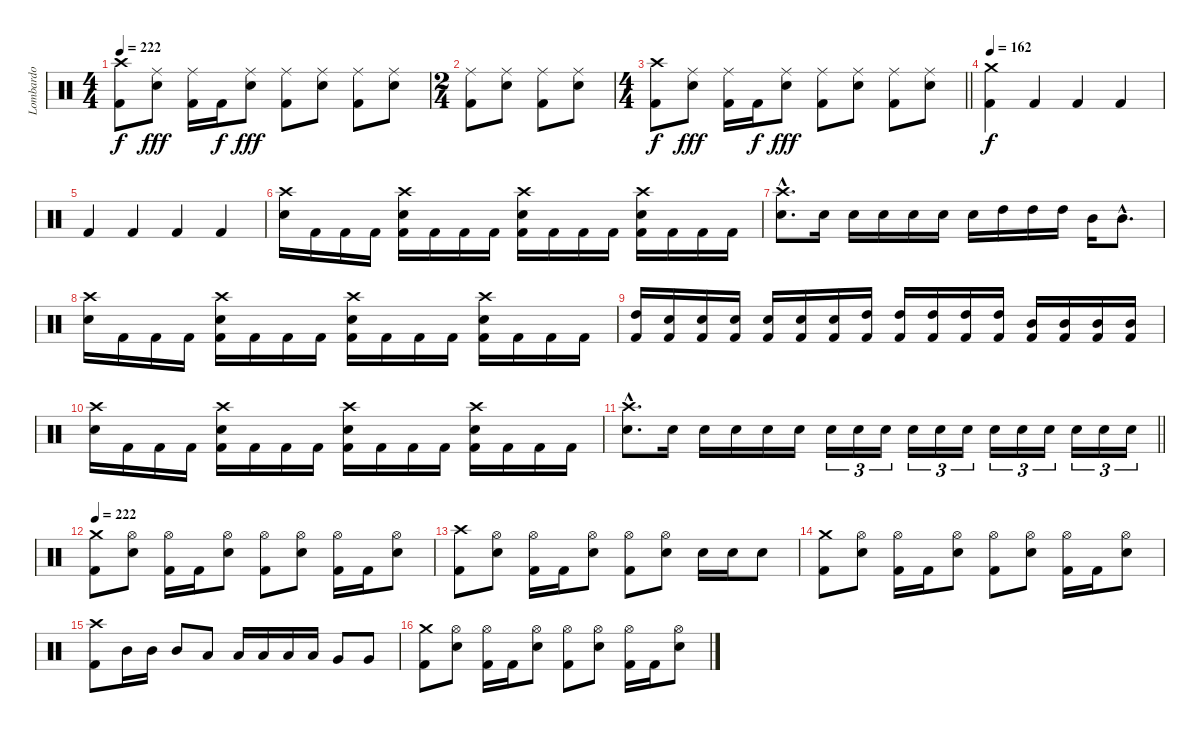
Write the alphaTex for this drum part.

\track ("Lombardo" "Lombardo") {instrument percussion}
\staff {score}
\articulation defaults
\ts (4 4)
\tempo 222
\clef neutral
\ks c
("Crash high (hit)" "Kick (hit) 2").8{dy f} ("Ride (middle)" "Snare (hit) 2").8{dy fff} ("Ride (middle)" "Kick (hit) 2").16 "Kick (hit) 2".16{dy f} ("Ride (middle)" "Snare (hit) 2").8{dy fff} ("Ride (middle)" "Kick (hit) 2").8 ("Ride (middle)" "Snare (hit) 2").8 ("Ride (middle)" "Kick (hit) 2").8 ("Ride (middle)" "Snare (hit) 2").8 |
\ts (2 4)
("Ride (middle)" "Kick (hit) 2").8 ("Ride (middle)" "Snare (hit) 2").8 ("Ride (middle)" "Kick (hit) 2").8 ("Ride (middle)" "Snare (hit) 2").8 |
\ts (4 4)
\barLineRight lightlight
("Crash high (hit)" "Kick (hit) 2").8{dy f} ("Ride (middle)" "Snare (hit) 2").8{dy fff} ("Ride (middle)" "Kick (hit) 2").16 "Kick (hit) 2".16{dy f} ("Ride (middle)" "Snare (hit) 2").8{dy fff} ("Ride (middle)" "Kick (hit) 2").8 ("Ride (middle)" "Snare (hit) 2").8 ("Ride (middle)" "Kick (hit) 2").8 ("Ride (middle)" "Snare (hit) 2").8 |
\tempo 162
("Crash medium (hit)" "Kick (hit) 2").4{dy f} "Kick (hit) 2".4 "Kick (hit) 2".4 "Kick (hit) 2".4 |
"Kick (hit) 2".4 "Kick (hit) 2".4 "Kick (hit) 2".4 "Kick (hit) 2".4 |
("Crash high (hit)" "Snare (hit) 2").16 "Kick (hit) 2".16 "Kick (hit) 2".16 "Kick (hit) 2".16 ("Crash high (hit)" "Snare (hit) 2" "Kick (hit) 2").16 "Kick (hit) 2".16 "Kick (hit) 2".16 "Kick (hit) 2".16 ("Crash high (hit)" "Snare (hit) 2" "Kick (hit) 2").16 "Kick (hit) 2".16 "Kick (hit) 2".16 "Kick (hit) 2".16 ("Crash high (hit)" "Snare (hit) 2" "Kick (hit) 2").16 "Kick (hit) 2".16 "Kick (hit) 2".16 "Kick (hit) 2".16 |
("Crash high (hit)"{hac} "Snare (hit) 2"{hac}).8{d} "Snare (hit) 2".16 "Snare (hit) 2".16 "Snare (hit) 2".16 "Snare (hit) 2".16 "Snare (hit) 2".16 "Snare (hit) 2".16 "High Tom (hit)".16 "High Tom (hit)".16 "High Tom (hit)".16 "Mid Tom (hit)".16 "Mid Tom (hit)"{hac}.8{d} |
("Crash high (hit)" "Snare (hit) 2").16 "Kick (hit) 2".16 "Kick (hit) 2".16 "Kick (hit) 2".16 ("Crash high (hit)" "Snare (hit) 2" "Kick (hit) 2").16 "Kick (hit) 2".16 "Kick (hit) 2".16 "Kick (hit) 2".16 ("Crash high (hit)" "Snare (hit) 2" "Kick (hit) 2").16 "Kick (hit) 2".16 "Kick (hit) 2".16 "Kick (hit) 2".16 ("Crash high (hit)" "Snare (hit) 2" "Kick (hit) 2").16 "Kick (hit) 2".16 "Kick (hit) 2".16 "Kick (hit) 2".16 |
("High Tom (hit)" "Kick (hit) 2").16 ("Snare (hit) 2" "Kick (hit) 2").16 ("Snare (hit) 2" "Kick (hit) 2").16 ("Snare (hit) 2" "Kick (hit) 2").16 ("Snare (hit) 2" "Kick (hit) 2").16 ("Snare (hit) 2" "Kick (hit) 2").16 ("Snare (hit) 2" "Kick (hit) 2").16 ("High Tom (hit)" "Kick (hit) 2").16 ("High Tom (hit)" "Kick (hit) 2").16 ("High Tom (hit)" "Kick (hit) 2").16 ("High Tom (hit)" "Kick (hit) 2").16 ("High Tom (hit)" "Kick (hit) 2").16 ("Mid Tom (hit)" "Kick (hit) 2").16 ("Mid Tom (hit)" "Kick (hit) 2").16 ("Mid Tom (hit)" "Kick (hit) 2").16 ("Mid Tom (hit)" "Kick (hit) 2").16 |
("Crash high (hit)" "Snare (hit) 2").16 "Kick (hit) 2".16 "Kick (hit) 2".16 "Kick (hit) 2".16 ("Crash high (hit)" "Snare (hit) 2" "Kick (hit) 2").16 "Kick (hit) 2".16 "Kick (hit) 2".16 "Kick (hit) 2".16 ("Crash high (hit)" "Snare (hit) 2" "Kick (hit) 2").16 "Kick (hit) 2".16 "Kick (hit) 2".16 "Kick (hit) 2".16 ("Crash high (hit)" "Snare (hit) 2" "Kick (hit) 2").16 "Kick (hit) 2".16 "Kick (hit) 2".16 "Kick (hit) 2".16 |
\barLineRight lightlight
("Crash high (hit)"{hac} "Snare (hit) 2"{hac}).8{d} "Snare (hit) 2".16 "Snare (hit) 2".16 "Snare (hit) 2".16 "Snare (hit) 2".16 "Snare (hit) 2".16 "Snare (hit) 2".16{tu (3 2)} "Snare (hit) 2".16{tu (3 2)} "Snare (hit) 2".16{tu (3 2)} "Snare (hit) 2".16{tu (3 2)} "Snare (hit) 2".16{tu (3 2)} "Snare (hit) 2".16{tu (3 2)} "Snare (hit) 2".16{tu (3 2)} "Snare (hit) 2".16{tu (3 2)} "Snare (hit) 2".16{tu (3 2)} "Snare (hit) 2".16{tu (3 2)} "Snare (hit) 2".16{tu (3 2)} "Snare (hit) 2".16{tu (3 2)} |
\tempo 222
("Crash medium (hit)" "Kick (hit) 2").8 ("Hi-Hat (open)" "Snare (hit) 2").8 ("Hi-Hat (open)" "Kick (hit) 2").16 "Kick (hit) 2".16 ("Hi-Hat (open)" "Snare (hit) 2").8 ("Hi-Hat (open)" "Kick (hit) 2").8 ("Hi-Hat (open)" "Snare (hit) 2").8 ("Hi-Hat (open)" "Kick (hit) 2").16 "Kick (hit) 2".16 ("Hi-Hat (open)" "Snare (hit) 2").8 |
("Crash high (hit)" "Kick (hit) 2").8 ("Hi-Hat (open)" "Snare (hit) 2").8 ("Hi-Hat (open)" "Kick (hit) 2").16 "Kick (hit) 2".16 ("Hi-Hat (open)" "Snare (hit) 2").8 ("Hi-Hat (open)" "Kick (hit) 2").8 ("Hi-Hat (open)" "Snare (hit) 2").8 "Snare (hit) 2".16 "Snare (hit) 2".16 "Snare (hit) 2".8 |
("Crash medium (hit)" "Kick (hit) 2").8 ("Hi-Hat (open)" "Snare (hit) 2").8 ("Hi-Hat (open)" "Kick (hit) 2").16 "Kick (hit) 2".16 ("Hi-Hat (open)" "Snare (hit) 2").8 ("Hi-Hat (open)" "Kick (hit) 2").8 ("Hi-Hat (open)" "Snare (hit) 2").8 ("Hi-Hat (open)" "Kick (hit) 2").16 "Kick (hit) 2".16 ("Hi-Hat (open)" "Snare (hit) 2").8 |
("Crash high (hit)" "Kick (hit) 2").8 "Mid Tom (hit)".16 "Mid Tom (hit)".16 "Mid Tom (hit)".8 "Low Tom (hit)".8 "Low Tom (hit)".16 "Low Tom (hit)".16 "Low Tom (hit)".16 "Low Tom (hit)".16 "Very Low Tom (hit)".8 "Very Low Tom (hit)".8 |
("Crash medium (hit)" "Kick (hit) 2").8 ("Hi-Hat (open)" "Snare (hit) 2").8 ("Hi-Hat (open)" "Kick (hit) 2").16 "Kick (hit) 2".16 ("Hi-Hat (open)" "Snare (hit) 2").8 ("Hi-Hat (open)" "Kick (hit) 2").8 ("Hi-Hat (open)" "Snare (hit) 2").8 ("Hi-Hat (open)" "Kick (hit) 2").16 "Kick (hit) 2".16 ("Hi-Hat (open)" "Snare (hit) 2").8
